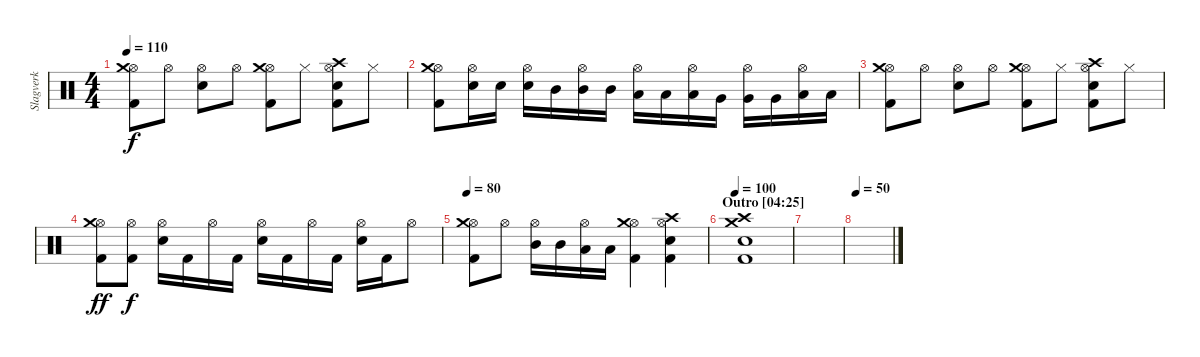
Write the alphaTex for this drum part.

\track ("Slagverk" "Slagverk") {instrument percussion}
\staff {score}
\articulation defaults
\ts (4 4)
\tempo 110
\clef neutral
\ks c
("Hi-Hat (open)" "Crash medium (hit)" "Kick (hit) 2").8{dy f} "Hi-Hat (open)".8 ("Hi-Hat (open)" "Electric Snare (hit)").8 "Hi-Hat (open)".8 ("Hi-Hat (open)" "Crash medium (hit)" "Kick (hit) 2").8 "Hi-Hat (closed)".8 ("Hi-Hat (open)" "Crash high (hit)" "Electric Snare (hit)" "Kick (hit) 2").8 "Hi-Hat (closed)".8 |
("Hi-Hat (open)" "Crash medium (hit)" "Kick (hit) 2").8 ("Hi-Hat (open)" "Electric Snare (hit)").16 "Electric Snare (hit)".16 ("Hi-Hat (open)" "Electric Snare (hit)").16 "Mid Tom (hit)".16 ("Hi-Hat (open)" "Mid Tom (hit)").16 "Mid Tom (hit)".16 ("Hi-Hat (open)" "Low Tom (hit)").16 "Low Tom (hit)".16 ("Hi-Hat (open)" "Low Tom (hit)").16 "Very Low Tom (hit)".16 ("Hi-Hat (open)" "Very Low Tom (hit)").16 "Very Low Tom (hit)".16 ("Hi-Hat (open)" "Low Floor Tom (hit)").16 "Low Floor Tom (hit)".16 |
("Hi-Hat (open)" "Crash medium (hit)" "Kick (hit) 2").8 "Hi-Hat (open)".8 ("Hi-Hat (open)" "Electric Snare (hit)").8 "Hi-Hat (open)".8 ("Hi-Hat (open)" "Crash medium (hit)" "Kick (hit) 2").8 "Hi-Hat (closed)".8 ("Hi-Hat (open)" "Crash high (hit)" "Electric Snare (hit)" "Kick (hit) 2").8 "Hi-Hat (closed)".8 |
("Hi-Hat (open)" "Crash medium (hit)" "Kick (hit) 2").8{dy ff} ("Hi-Hat (open)" "Kick (hit) 2").8{dy f} ("Hi-Hat (open)" "Electric Snare (hit)").16 "Kick (hit) 2".16 "Hi-Hat (open)".16 "Kick (hit) 2".16 ("Hi-Hat (open)" "Electric Snare (hit)").16 "Kick (hit) 2".16 "Hi-Hat (open)".16 "Kick (hit) 2".16 ("Hi-Hat (open)" "Electric Snare (hit)").16 "Kick (hit) 2".16 "Hi-Hat (open)".8 |
\tempo 80
("Hi-Hat (open)" "Crash medium (hit)" "Kick (hit) 2").8 "Hi-Hat (open)".8 ("Hi-Hat (open)" "Mid Tom (hit)").16 "Mid Tom (hit)".16 ("Hi-Hat (open)" "Low Tom (hit)").16 "Low Tom (hit)".16 ("Hi-Hat (open)" "Crash medium (hit)" "Kick (hit) 2").4 ("Hi-Hat (open)" "Crash high (hit)" "Electric Snare (hit)" "Kick (hit) 2").4 |
\section ("" "Outro [04:25]")
\tempo 100
("Crash high (hit)" "Crash medium (hit)" "Electric Snare (hit)" "Kick (hit) 2").1 |
|
\tempo 50
